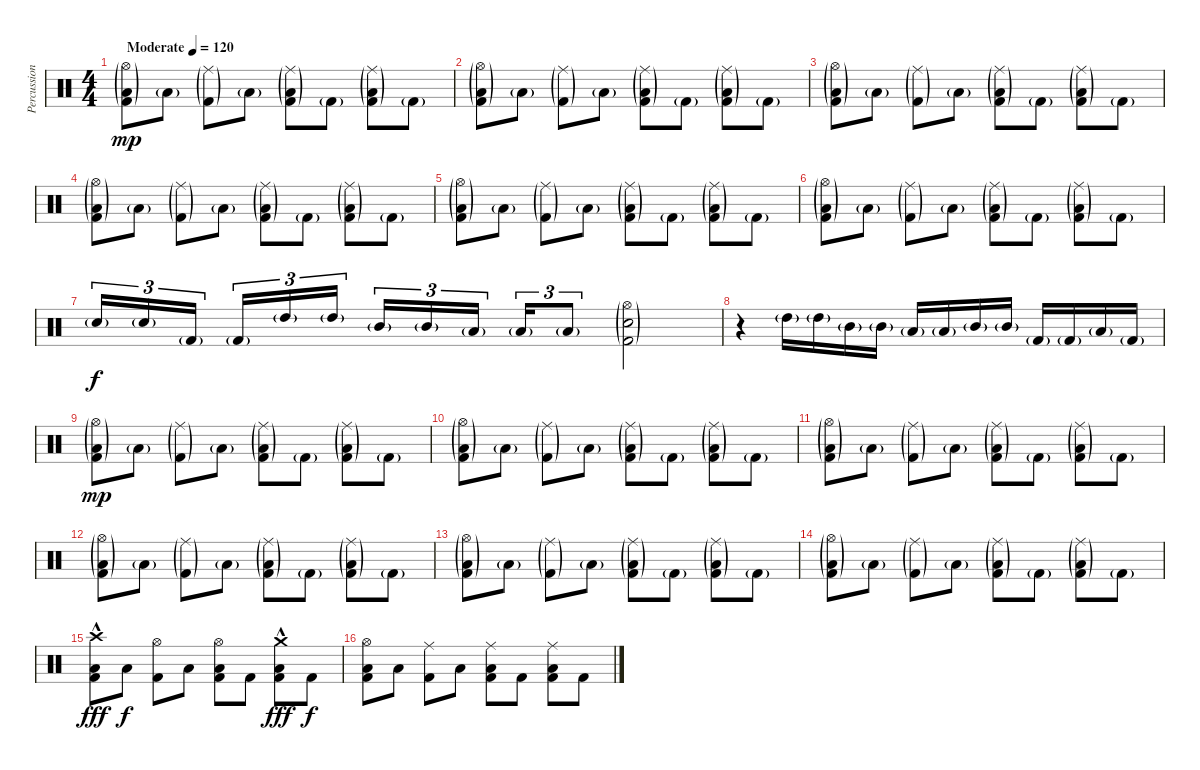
\track ("Percussion" "Percussion") {instrument percussion}
\staff {score}
\articulation defaults
\ts (4 4)
\tempo (120 "Moderate")
\clef neutral
\ks c
("Hi-Hat (open)"{g} "Kick (hit) 2"{g} "Low Floor Tom (hit)"{g}).8{dy mp} "Low Floor Tom (hit)"{g}.8 ("Ride (middle)"{g} "Kick (hit) 2"{g}).8 "Low Floor Tom (hit)"{g}.8 ("Ride (middle)"{g} "Kick (hit) 2"{g} "Low Floor Tom (hit)"{g}).8 "Kick (hit) 2"{g}.8 ("Ride (middle)"{g} "Kick (hit) 2"{g} "Low Floor Tom (hit)"{g}).8 "Kick (hit) 2"{g}.8 |
("Hi-Hat (open)"{g} "Kick (hit) 2"{g} "Low Floor Tom (hit)"{g}).8 "Low Floor Tom (hit)"{g}.8 ("Ride (middle)"{g} "Kick (hit) 2"{g}).8 "Low Floor Tom (hit)"{g}.8 ("Ride (middle)"{g} "Kick (hit) 2"{g} "Low Floor Tom (hit)"{g}).8 "Kick (hit) 2"{g}.8 ("Ride (middle)"{g} "Kick (hit) 2"{g} "Low Floor Tom (hit)"{g}).8 "Kick (hit) 2"{g}.8 |
("Hi-Hat (open)"{g} "Kick (hit) 2"{g} "Low Floor Tom (hit)"{g}).8 "Low Floor Tom (hit)"{g}.8 ("Ride (middle)"{g} "Kick (hit) 2"{g}).8 "Low Floor Tom (hit)"{g}.8 ("Ride (middle)"{g} "Kick (hit) 2"{g} "Low Floor Tom (hit)"{g}).8 "Kick (hit) 2"{g}.8 ("Ride (middle)"{g} "Kick (hit) 2"{g} "Low Floor Tom (hit)"{g}).8 "Kick (hit) 2"{g}.8 |
("Hi-Hat (open)"{g} "Kick (hit) 2"{g} "Low Floor Tom (hit)"{g}).8 "Low Floor Tom (hit)"{g}.8 ("Ride (middle)"{g} "Kick (hit) 2"{g}).8 "Low Floor Tom (hit)"{g}.8 ("Ride (middle)"{g} "Kick (hit) 2"{g} "Low Floor Tom (hit)"{g}).8 "Kick (hit) 2"{g}.8 ("Ride (middle)"{g} "Kick (hit) 2"{g} "Low Floor Tom (hit)"{g}).8 "Kick (hit) 2"{g}.8 |
("Hi-Hat (open)"{g} "Kick (hit) 2"{g} "Low Floor Tom (hit)"{g}).8 "Low Floor Tom (hit)"{g}.8 ("Ride (middle)"{g} "Kick (hit) 2"{g}).8 "Low Floor Tom (hit)"{g}.8 ("Ride (middle)"{g} "Kick (hit) 2"{g} "Low Floor Tom (hit)"{g}).8 "Kick (hit) 2"{g}.8 ("Ride (middle)"{g} "Kick (hit) 2"{g} "Low Floor Tom (hit)"{g}).8 "Kick (hit) 2"{g}.8 |
("Hi-Hat (open)"{g} "Kick (hit) 2"{g} "Low Floor Tom (hit)"{g}).8 "Low Floor Tom (hit)"{g}.8 ("Ride (middle)"{g} "Kick (hit) 2"{g}).8 "Low Floor Tom (hit)"{g}.8 ("Ride (middle)"{g} "Kick (hit) 2"{g} "Low Floor Tom (hit)"{g}).8 "Kick (hit) 2"{g}.8 ("Ride (middle)"{g} "Kick (hit) 2"{g} "Low Floor Tom (hit)"{g}).8 "Kick (hit) 2"{g}.8 |
"Snare (hit) 2"{g}.16{tu (3 2) dy f} "Snare (hit) 2"{g}.16{tu (3 2)} "Kick (hit) 2"{g}.16{tu (3 2) beam splitsecondary} "Kick (hit) 2"{g}.16{tu (3 2)} "High Tom (hit)"{g}.16{tu (3 2)} "High Tom (hit)"{g}.16{tu (3 2)} "Mid Tom (hit)"{g}.16{tu (3 2)} "Mid Tom (hit)"{g}.16{tu (3 2)} "Low Tom (hit)"{g}.16{tu (3 2) beam splitsecondary} "Low Tom (hit)"{g}.16{tu (3 2)} "Low Tom (hit)"{g}.8{tu (3 2)} ("Hi-Hat (open)"{g} "Snare (hit) 2"{g} "Kick (hit) 2"{g}).2 |
r.4 "High Tom (hit)"{g}.16 "High Tom (hit)"{g}.16 "Mid Tom (hit)"{g}.16 "Mid Tom (hit)"{g}.16 "Low Tom (hit)"{g}.16 "Low Tom (hit)"{g}.16 "Mid Tom (hit)"{g}.16 "Mid Tom (hit)"{g}.16 "Kick (hit) 2"{g}.16 "Kick (hit) 2"{g}.16 "Low Floor Tom (hit)"{g}.16 "Kick (hit) 2"{g}.16 |
("Hi-Hat (open)"{g} "Kick (hit) 2"{g} "Low Floor Tom (hit)"{g}).8{dy mp} "Low Floor Tom (hit)"{g}.8 ("Ride (middle)"{g} "Kick (hit) 2"{g}).8 "Low Floor Tom (hit)"{g}.8 ("Ride (middle)"{g} "Kick (hit) 2"{g} "Low Floor Tom (hit)"{g}).8 "Kick (hit) 2"{g}.8 ("Ride (middle)"{g} "Kick (hit) 2"{g} "Low Floor Tom (hit)"{g}).8 "Kick (hit) 2"{g}.8 |
("Hi-Hat (open)"{g} "Kick (hit) 2"{g} "Low Floor Tom (hit)"{g}).8 "Low Floor Tom (hit)"{g}.8 ("Ride (middle)"{g} "Kick (hit) 2"{g}).8 "Low Floor Tom (hit)"{g}.8 ("Ride (middle)"{g} "Kick (hit) 2"{g} "Low Floor Tom (hit)"{g}).8 "Kick (hit) 2"{g}.8 ("Ride (middle)"{g} "Kick (hit) 2"{g} "Low Floor Tom (hit)"{g}).8 "Kick (hit) 2"{g}.8 |
("Hi-Hat (open)"{g} "Kick (hit) 2"{g} "Low Floor Tom (hit)"{g}).8 "Low Floor Tom (hit)"{g}.8 ("Ride (middle)"{g} "Kick (hit) 2"{g}).8 "Low Floor Tom (hit)"{g}.8 ("Ride (middle)"{g} "Kick (hit) 2"{g} "Low Floor Tom (hit)"{g}).8 "Kick (hit) 2"{g}.8 ("Ride (middle)"{g} "Kick (hit) 2"{g} "Low Floor Tom (hit)"{g}).8 "Kick (hit) 2"{g}.8 |
("Hi-Hat (open)"{g} "Kick (hit) 2"{g} "Low Floor Tom (hit)"{g}).8 "Low Floor Tom (hit)"{g}.8 ("Ride (middle)"{g} "Kick (hit) 2"{g}).8 "Low Floor Tom (hit)"{g}.8 ("Ride (middle)"{g} "Kick (hit) 2"{g} "Low Floor Tom (hit)"{g}).8 "Kick (hit) 2"{g}.8 ("Ride (middle)"{g} "Kick (hit) 2"{g} "Low Floor Tom (hit)"{g}).8 "Kick (hit) 2"{g}.8 |
("Hi-Hat (open)"{g} "Kick (hit) 2"{g} "Low Floor Tom (hit)"{g}).8 "Low Floor Tom (hit)"{g}.8 ("Ride (middle)"{g} "Kick (hit) 2"{g}).8 "Low Floor Tom (hit)"{g}.8 ("Ride (middle)"{g} "Kick (hit) 2"{g} "Low Floor Tom (hit)"{g}).8 "Kick (hit) 2"{g}.8 ("Ride (middle)"{g} "Kick (hit) 2"{g} "Low Floor Tom (hit)"{g}).8 "Kick (hit) 2"{g}.8 |
("Hi-Hat (open)"{g} "Kick (hit) 2"{g} "Low Floor Tom (hit)"{g}).8 "Low Floor Tom (hit)"{g}.8 ("Ride (middle)"{g} "Kick (hit) 2"{g}).8 "Low Floor Tom (hit)"{g}.8 ("Ride (middle)"{g} "Kick (hit) 2"{g} "Low Floor Tom (hit)"{g}).8 "Kick (hit) 2"{g}.8 ("Ride (middle)"{g} "Kick (hit) 2"{g} "Low Floor Tom (hit)"{g}).8 "Kick (hit) 2"{g}.8 |
("Crash high (hit)"{hac} "Kick (hit) 2" "Low Floor Tom (hit)").8{dy fff} "Low Floor Tom (hit)".8{dy f} ("Hi-Hat (open)" "Kick (hit) 2").8 "Low Floor Tom (hit)".8 ("Hi-Hat (open)" "Kick (hit) 2" "Low Floor Tom (hit)").8 "Kick (hit) 2".8 ("Crash medium (hit)"{hac} "Kick (hit) 2" "Low Floor Tom (hit)").8{dy fff} "Kick (hit) 2".8{dy f} |
("Hi-Hat (open)" "Kick (hit) 2" "Low Floor Tom (hit)").8 "Low Floor Tom (hit)".8 ("Ride (middle)" "Kick (hit) 2").8 "Low Floor Tom (hit)".8 ("Ride (middle)" "Kick (hit) 2" "Low Floor Tom (hit)").8 "Kick (hit) 2".8 ("Ride (middle)" "Kick (hit) 2" "Low Floor Tom (hit)").8 "Kick (hit) 2".8
